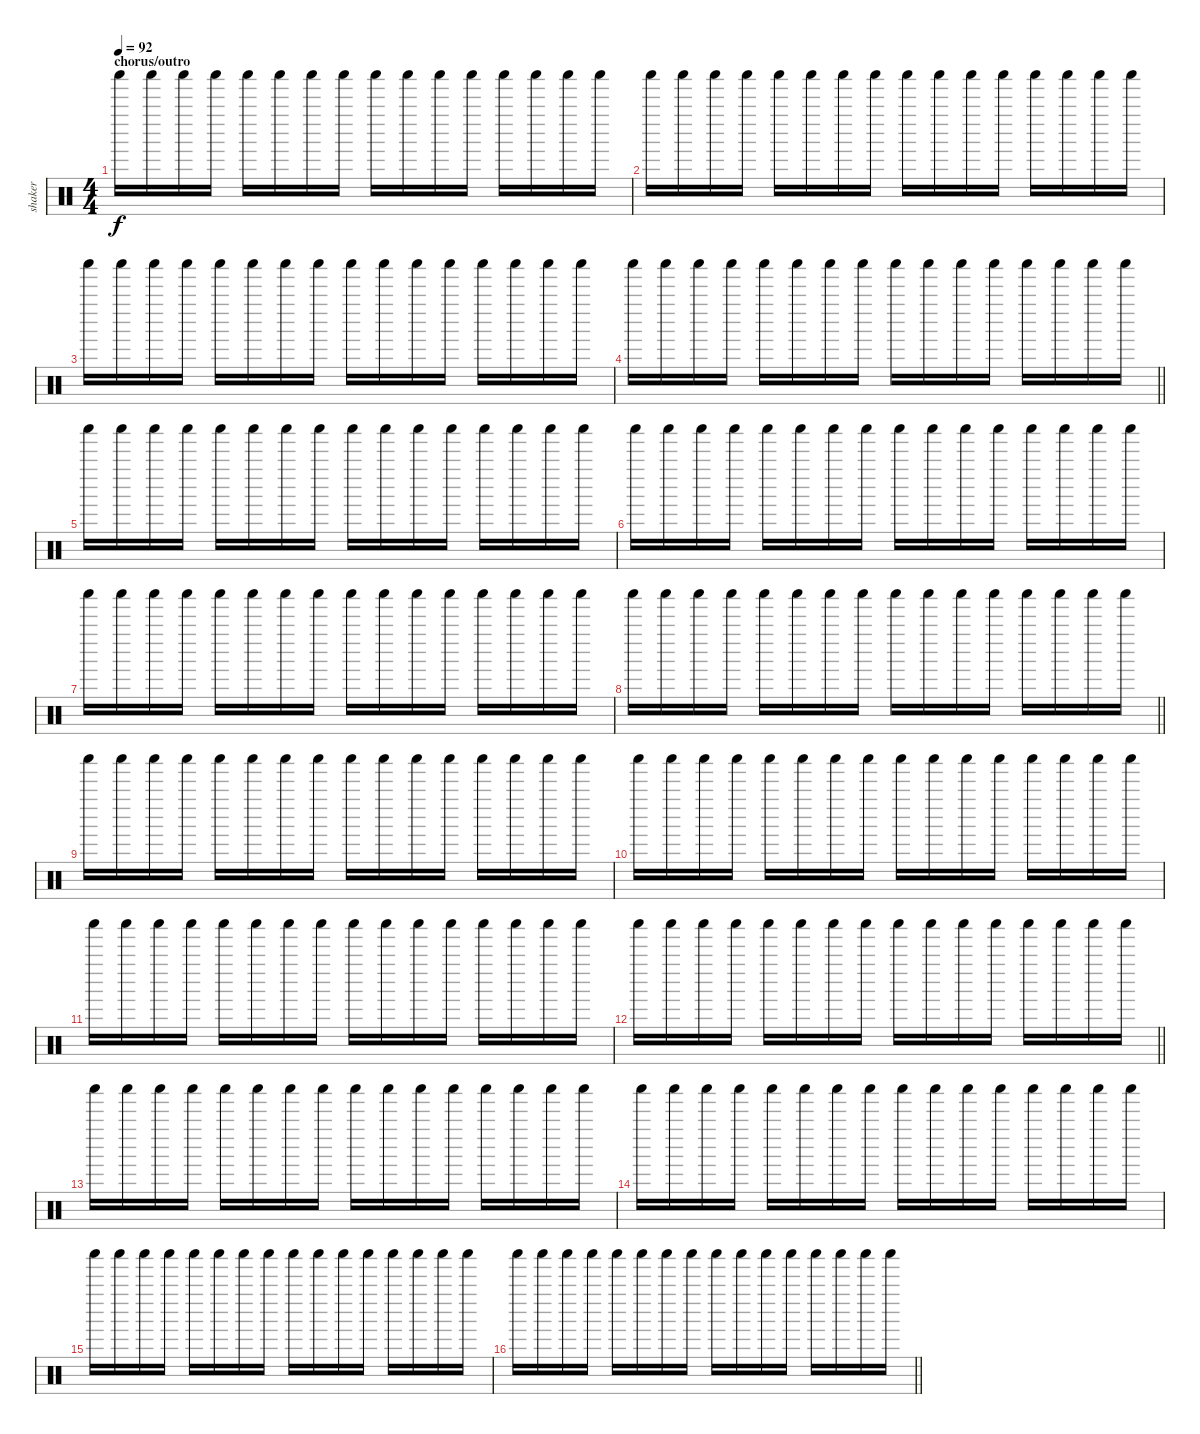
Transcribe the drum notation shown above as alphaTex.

\track ("shaker" "shaker") {instrument percussion}
\staff {score}
\articulation defaults
\ts (4 4)
\section ("" "chorus/outro")
\tempo 92
\clef neutral
\ks c "Shaker (hit)".16{dy f} "Shaker (hit)".16 "Shaker (hit)".16 "Shaker (hit)".16 "Shaker (hit)".16 "Shaker (hit)".16 "Shaker (hit)".16 "Shaker (hit)".16 "Shaker (hit)".16 "Shaker (hit)".16 "Shaker (hit)".16 "Shaker (hit)".16 "Shaker (hit)".16 "Shaker (hit)".16 "Shaker (hit)".16 "Shaker (hit)".16
|
"Shaker (hit)".16 "Shaker (hit)".16 "Shaker (hit)".16 "Shaker (hit)".16 "Shaker (hit)".16 "Shaker (hit)".16 "Shaker (hit)".16 "Shaker (hit)".16 "Shaker (hit)".16 "Shaker (hit)".16 "Shaker (hit)".16 "Shaker (hit)".16 "Shaker (hit)".16 "Shaker (hit)".16 "Shaker (hit)".16 "Shaker (hit)".16 |
"Shaker (hit)".16 "Shaker (hit)".16 "Shaker (hit)".16 "Shaker (hit)".16 "Shaker (hit)".16 "Shaker (hit)".16 "Shaker (hit)".16 "Shaker (hit)".16 "Shaker (hit)".16 "Shaker (hit)".16 "Shaker (hit)".16 "Shaker (hit)".16 "Shaker (hit)".16 "Shaker (hit)".16 "Shaker (hit)".16 "Shaker (hit)".16 |
\barLineRight lightlight "Shaker (hit)".16 "Shaker (hit)".16 "Shaker (hit)".16 "Shaker (hit)".16 "Shaker (hit)".16 "Shaker (hit)".16 "Shaker (hit)".16 "Shaker (hit)".16 "Shaker (hit)".16 "Shaker (hit)".16 "Shaker (hit)".16 "Shaker (hit)".16 "Shaker (hit)".16 "Shaker (hit)".16 "Shaker (hit)".16 "Shaker (hit)".16
|
"Shaker (hit)".16 "Shaker (hit)".16 "Shaker (hit)".16 "Shaker (hit)".16 "Shaker (hit)".16 "Shaker (hit)".16 "Shaker (hit)".16 "Shaker (hit)".16 "Shaker (hit)".16 "Shaker (hit)".16 "Shaker (hit)".16 "Shaker (hit)".16 "Shaker (hit)".16 "Shaker (hit)".16 "Shaker (hit)".16 "Shaker (hit)".16 |
"Shaker (hit)".16 "Shaker (hit)".16 "Shaker (hit)".16 "Shaker (hit)".16 "Shaker (hit)".16 "Shaker (hit)".16 "Shaker (hit)".16 "Shaker (hit)".16 "Shaker (hit)".16 "Shaker (hit)".16 "Shaker (hit)".16 "Shaker (hit)".16 "Shaker (hit)".16 "Shaker (hit)".16 "Shaker (hit)".16 "Shaker (hit)".16 |
"Shaker (hit)".16 "Shaker (hit)".16 "Shaker (hit)".16 "Shaker (hit)".16 "Shaker (hit)".16 "Shaker (hit)".16 "Shaker (hit)".16 "Shaker (hit)".16 "Shaker (hit)".16 "Shaker (hit)".16 "Shaker (hit)".16 "Shaker (hit)".16 "Shaker (hit)".16 "Shaker (hit)".16 "Shaker (hit)".16 "Shaker (hit)".16 |
\barLineRight lightlight "Shaker (hit)".16 "Shaker (hit)".16 "Shaker (hit)".16 "Shaker (hit)".16 "Shaker (hit)".16 "Shaker (hit)".16 "Shaker (hit)".16 "Shaker (hit)".16 "Shaker (hit)".16 "Shaker (hit)".16 "Shaker (hit)".16 "Shaker (hit)".16 "Shaker (hit)".16 "Shaker (hit)".16 "Shaker (hit)".16 "Shaker (hit)".16
|
"Shaker (hit)".16 "Shaker (hit)".16 "Shaker (hit)".16 "Shaker (hit)".16 "Shaker (hit)".16 "Shaker (hit)".16 "Shaker (hit)".16 "Shaker (hit)".16 "Shaker (hit)".16 "Shaker (hit)".16 "Shaker (hit)".16 "Shaker (hit)".16 "Shaker (hit)".16 "Shaker (hit)".16 "Shaker (hit)".16 "Shaker (hit)".16 |
"Shaker (hit)".16 "Shaker (hit)".16 "Shaker (hit)".16 "Shaker (hit)".16 "Shaker (hit)".16 "Shaker (hit)".16 "Shaker (hit)".16 "Shaker (hit)".16 "Shaker (hit)".16 "Shaker (hit)".16 "Shaker (hit)".16 "Shaker (hit)".16 "Shaker (hit)".16 "Shaker (hit)".16 "Shaker (hit)".16 "Shaker (hit)".16 |
"Shaker (hit)".16 "Shaker (hit)".16 "Shaker (hit)".16 "Shaker (hit)".16 "Shaker (hit)".16 "Shaker (hit)".16 "Shaker (hit)".16 "Shaker (hit)".16 "Shaker (hit)".16 "Shaker (hit)".16 "Shaker (hit)".16 "Shaker (hit)".16 "Shaker (hit)".16 "Shaker (hit)".16 "Shaker (hit)".16 "Shaker (hit)".16 |
\barLineRight lightlight "Shaker (hit)".16 "Shaker (hit)".16 "Shaker (hit)".16 "Shaker (hit)".16 "Shaker (hit)".16 "Shaker (hit)".16 "Shaker (hit)".16 "Shaker (hit)".16 "Shaker (hit)".16 "Shaker (hit)".16 "Shaker (hit)".16 "Shaker (hit)".16 "Shaker (hit)".16 "Shaker (hit)".16 "Shaker (hit)".16 "Shaker (hit)".16
|
"Shaker (hit)".16 "Shaker (hit)".16 "Shaker (hit)".16 "Shaker (hit)".16 "Shaker (hit)".16 "Shaker (hit)".16 "Shaker (hit)".16 "Shaker (hit)".16 "Shaker (hit)".16 "Shaker (hit)".16 "Shaker (hit)".16 "Shaker (hit)".16 "Shaker (hit)".16 "Shaker (hit)".16 "Shaker (hit)".16 "Shaker (hit)".16 |
"Shaker (hit)".16 "Shaker (hit)".16 "Shaker (hit)".16 "Shaker (hit)".16 "Shaker (hit)".16 "Shaker (hit)".16 "Shaker (hit)".16 "Shaker (hit)".16 "Shaker (hit)".16 "Shaker (hit)".16 "Shaker (hit)".16 "Shaker (hit)".16 "Shaker (hit)".16 "Shaker (hit)".16 "Shaker (hit)".16 "Shaker (hit)".16 |
"Shaker (hit)".16 "Shaker (hit)".16 "Shaker (hit)".16 "Shaker (hit)".16 "Shaker (hit)".16 "Shaker (hit)".16 "Shaker (hit)".16 "Shaker (hit)".16 "Shaker (hit)".16 "Shaker (hit)".16 "Shaker (hit)".16 "Shaker (hit)".16 "Shaker (hit)".16 "Shaker (hit)".16 "Shaker (hit)".16 "Shaker (hit)".16 |
\barLineRight lightlight "Shaker (hit)".16 "Shaker (hit)".16 "Shaker (hit)".16 "Shaker (hit)".16 "Shaker (hit)".16 "Shaker (hit)".16 "Shaker (hit)".16 "Shaker (hit)".16 "Shaker (hit)".16 "Shaker (hit)".16 "Shaker (hit)".16 "Shaker (hit)".16 "Shaker (hit)".16 "Shaker (hit)".16 "Shaker (hit)".16 "Shaker (hit)".16
